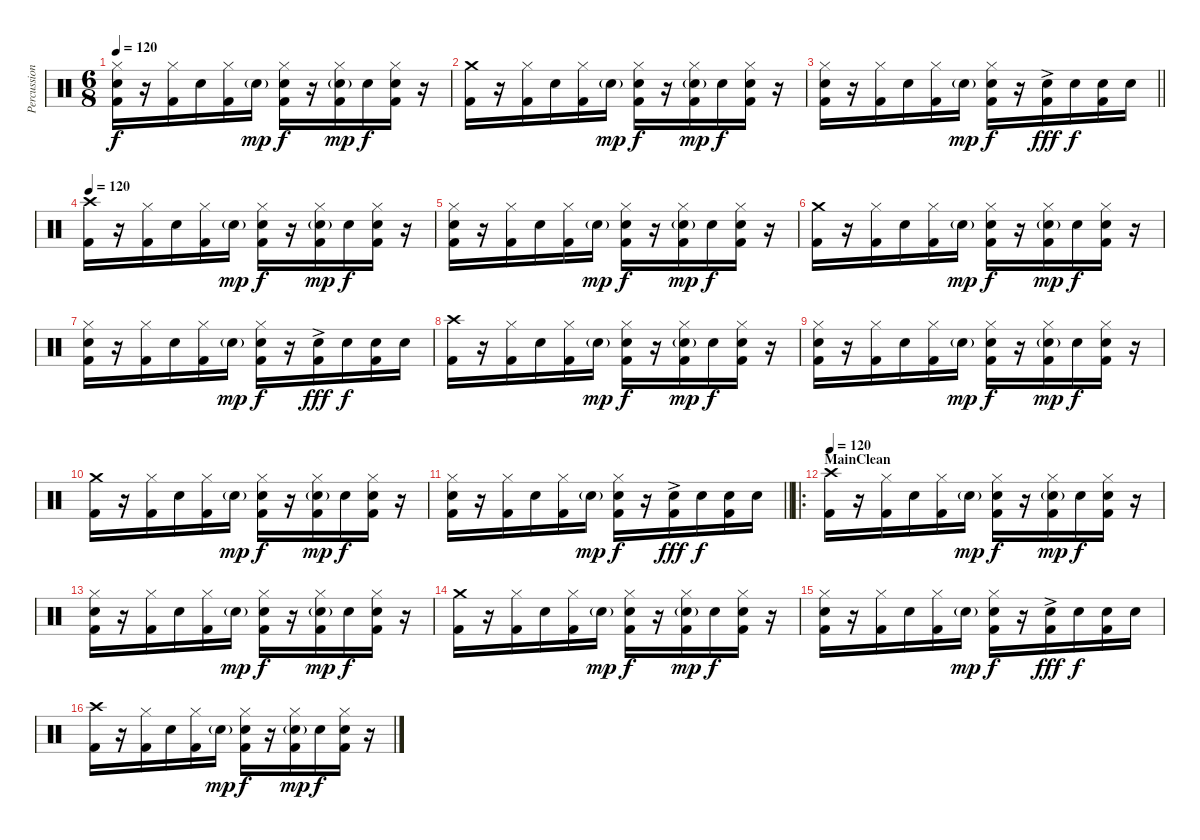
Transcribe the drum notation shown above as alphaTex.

\track ("Percussion" "Percussion") {instrument percussion}
\staff {score}
\articulation defaults
\ts (6 8)
\tempo 120
\clef neutral
\ks c
("Hi-Hat (closed)" "Snare (hit) 2" "Kick (hit) 2").16{dy f} r.16 ("Hi-Hat (closed)" "Kick (hit) 2").16 "Snare (hit) 2".16 ("Hi-Hat (closed)" "Kick (hit) 2").16 "Snare (hit) 2"{g}.16{dy mp} ("Hi-Hat (closed)" "Snare (hit) 2" "Kick (hit) 2").16{dy f} r.16 ("Hi-Hat (closed)" "Snare (hit) 2"{g} "Kick (hit) 2").16{dy mp} "Snare (hit) 2".16{dy f} ("Hi-Hat (closed)" "Snare (hit) 2" "Kick (hit) 2").16 r.16 |
("Crash medium (hit)" "Kick (hit) 2").16 r.16 ("Hi-Hat (closed)" "Kick (hit) 2").16 "Snare (hit) 2".16 ("Hi-Hat (closed)" "Kick (hit) 2").16 "Snare (hit) 2"{g}.16{dy mp} ("Hi-Hat (closed)" "Snare (hit) 2" "Kick (hit) 2").16{dy f} r.16 ("Hi-Hat (closed)" "Snare (hit) 2"{g} "Kick (hit) 2").16{dy mp} "Snare (hit) 2".16{dy f} ("Hi-Hat (closed)" "Snare (hit) 2" "Kick (hit) 2").16 r.16 |
\barLineRight lightlight
("Hi-Hat (closed)" "Snare (hit) 2" "Kick (hit) 2").16 r.16 ("Hi-Hat (closed)" "Kick (hit) 2").16 "Snare (hit) 2".16 ("Hi-Hat (closed)" "Kick (hit) 2").16 "Snare (hit) 2"{g}.16{dy mp} ("Hi-Hat (closed)" "Snare (hit) 2" "Kick (hit) 2").16{dy f} r.16 ("Snare (hit) 2"{ac} "Kick (hit) 2").16{dy fff} "Snare (hit) 2".16{dy f} ("Snare (hit) 2" "Kick (hit) 2").16 "Snare (hit) 2".16 |
\tempo 120
("Crash high (hit)" "Kick (hit) 2").16 r.16 ("Hi-Hat (closed)" "Kick (hit) 2").16 "Snare (hit) 2".16 ("Hi-Hat (closed)" "Kick (hit) 2").16 "Snare (hit) 2"{g}.16{dy mp} ("Hi-Hat (closed)" "Snare (hit) 2" "Kick (hit) 2").16{dy f} r.16 ("Hi-Hat (closed)" "Snare (hit) 2"{g} "Kick (hit) 2").16{dy mp} "Snare (hit) 2".16{dy f} ("Hi-Hat (closed)" "Snare (hit) 2" "Kick (hit) 2").16 r.16 |
("Hi-Hat (closed)" "Snare (hit) 2" "Kick (hit) 2").16 r.16 ("Hi-Hat (closed)" "Kick (hit) 2").16 "Snare (hit) 2".16 ("Hi-Hat (closed)" "Kick (hit) 2").16 "Snare (hit) 2"{g}.16{dy mp} ("Hi-Hat (closed)" "Snare (hit) 2" "Kick (hit) 2").16{dy f} r.16 ("Hi-Hat (closed)" "Snare (hit) 2"{g} "Kick (hit) 2").16{dy mp} "Snare (hit) 2".16{dy f} ("Hi-Hat (closed)" "Snare (hit) 2" "Kick (hit) 2").16 r.16 |
("Crash medium (hit)" "Kick (hit) 2").16 r.16 ("Hi-Hat (closed)" "Kick (hit) 2").16 "Snare (hit) 2".16 ("Hi-Hat (closed)" "Kick (hit) 2").16 "Snare (hit) 2"{g}.16{dy mp} ("Hi-Hat (closed)" "Snare (hit) 2" "Kick (hit) 2").16{dy f} r.16 ("Hi-Hat (closed)" "Snare (hit) 2"{g} "Kick (hit) 2").16{dy mp} "Snare (hit) 2".16{dy f} ("Hi-Hat (closed)" "Snare (hit) 2" "Kick (hit) 2").16 r.16 |
("Hi-Hat (closed)" "Snare (hit) 2" "Kick (hit) 2").16 r.16 ("Hi-Hat (closed)" "Kick (hit) 2").16 "Snare (hit) 2".16 ("Hi-Hat (closed)" "Kick (hit) 2").16 "Snare (hit) 2"{g}.16{dy mp} ("Hi-Hat (closed)" "Snare (hit) 2" "Kick (hit) 2").16{dy f} r.16 ("Snare (hit) 2"{ac} "Kick (hit) 2").16{dy fff} "Snare (hit) 2".16{dy f} ("Snare (hit) 2" "Kick (hit) 2").16 "Snare (hit) 2".16 |
("Crash high (hit)" "Kick (hit) 2").16 r.16 ("Hi-Hat (closed)" "Kick (hit) 2").16 "Snare (hit) 2".16 ("Hi-Hat (closed)" "Kick (hit) 2").16 "Snare (hit) 2"{g}.16{dy mp} ("Hi-Hat (closed)" "Snare (hit) 2" "Kick (hit) 2").16{dy f} r.16 ("Hi-Hat (closed)" "Snare (hit) 2"{g} "Kick (hit) 2").16{dy mp} "Snare (hit) 2".16{dy f} ("Hi-Hat (closed)" "Snare (hit) 2" "Kick (hit) 2").16 r.16 |
("Hi-Hat (closed)" "Snare (hit) 2" "Kick (hit) 2").16 r.16 ("Hi-Hat (closed)" "Kick (hit) 2").16 "Snare (hit) 2".16 ("Hi-Hat (closed)" "Kick (hit) 2").16 "Snare (hit) 2"{g}.16{dy mp} ("Hi-Hat (closed)" "Snare (hit) 2" "Kick (hit) 2").16{dy f} r.16 ("Hi-Hat (closed)" "Snare (hit) 2"{g} "Kick (hit) 2").16{dy mp} "Snare (hit) 2".16{dy f} ("Hi-Hat (closed)" "Snare (hit) 2" "Kick (hit) 2").16 r.16 |
("Crash medium (hit)" "Kick (hit) 2").16 r.16 ("Hi-Hat (closed)" "Kick (hit) 2").16 "Snare (hit) 2".16 ("Hi-Hat (closed)" "Kick (hit) 2").16 "Snare (hit) 2"{g}.16{dy mp} ("Hi-Hat (closed)" "Snare (hit) 2" "Kick (hit) 2").16{dy f} r.16 ("Hi-Hat (closed)" "Snare (hit) 2"{g} "Kick (hit) 2").16{dy mp} "Snare (hit) 2".16{dy f} ("Hi-Hat (closed)" "Snare (hit) 2" "Kick (hit) 2").16 r.16 |
\barLineRight lightlight
("Hi-Hat (closed)" "Snare (hit) 2" "Kick (hit) 2").16 r.16 ("Hi-Hat (closed)" "Kick (hit) 2").16 "Snare (hit) 2".16 ("Hi-Hat (closed)" "Kick (hit) 2").16 "Snare (hit) 2"{g}.16{dy mp} ("Hi-Hat (closed)" "Snare (hit) 2" "Kick (hit) 2").16{dy f} r.16 ("Snare (hit) 2"{ac} "Kick (hit) 2").16{dy fff} "Snare (hit) 2".16{dy f} ("Snare (hit) 2" "Kick (hit) 2").16 "Snare (hit) 2".16 |
\ro
\section ("" "MainClean")
\tempo 120
("Crash high (hit)" "Kick (hit) 2").16 r.16 ("Hi-Hat (closed)" "Kick (hit) 2").16 "Snare (hit) 2".16 ("Hi-Hat (closed)" "Kick (hit) 2").16 "Snare (hit) 2"{g}.16{dy mp} ("Hi-Hat (closed)" "Snare (hit) 2" "Kick (hit) 2").16{dy f} r.16 ("Hi-Hat (closed)" "Snare (hit) 2"{g} "Kick (hit) 2").16{dy mp} "Snare (hit) 2".16{dy f} ("Hi-Hat (closed)" "Snare (hit) 2" "Kick (hit) 2").16 r.16 |
("Hi-Hat (closed)" "Snare (hit) 2" "Kick (hit) 2").16 r.16 ("Hi-Hat (closed)" "Kick (hit) 2").16 "Snare (hit) 2".16 ("Hi-Hat (closed)" "Kick (hit) 2").16 "Snare (hit) 2"{g}.16{dy mp} ("Hi-Hat (closed)" "Snare (hit) 2" "Kick (hit) 2").16{dy f} r.16 ("Hi-Hat (closed)" "Snare (hit) 2"{g} "Kick (hit) 2").16{dy mp} "Snare (hit) 2".16{dy f} ("Hi-Hat (closed)" "Snare (hit) 2" "Kick (hit) 2").16 r.16 |
("Crash medium (hit)" "Kick (hit) 2").16 r.16 ("Hi-Hat (closed)" "Kick (hit) 2").16 "Snare (hit) 2".16 ("Hi-Hat (closed)" "Kick (hit) 2").16 "Snare (hit) 2"{g}.16{dy mp} ("Hi-Hat (closed)" "Snare (hit) 2" "Kick (hit) 2").16{dy f} r.16 ("Hi-Hat (closed)" "Snare (hit) 2"{g} "Kick (hit) 2").16{dy mp} "Snare (hit) 2".16{dy f} ("Hi-Hat (closed)" "Snare (hit) 2" "Kick (hit) 2").16 r.16 |
("Hi-Hat (closed)" "Snare (hit) 2" "Kick (hit) 2").16 r.16 ("Hi-Hat (closed)" "Kick (hit) 2").16 "Snare (hit) 2".16 ("Hi-Hat (closed)" "Kick (hit) 2").16 "Snare (hit) 2"{g}.16{dy mp} ("Hi-Hat (closed)" "Snare (hit) 2" "Kick (hit) 2").16{dy f} r.16 ("Snare (hit) 2"{ac} "Kick (hit) 2").16{dy fff} "Snare (hit) 2".16{dy f} ("Snare (hit) 2" "Kick (hit) 2").16 "Snare (hit) 2".16 |
("Crash high (hit)" "Kick (hit) 2").16 r.16 ("Hi-Hat (closed)" "Kick (hit) 2").16 "Snare (hit) 2".16 ("Hi-Hat (closed)" "Kick (hit) 2").16 "Snare (hit) 2"{g}.16{dy mp} ("Hi-Hat (closed)" "Snare (hit) 2" "Kick (hit) 2").16{dy f} r.16 ("Hi-Hat (closed)" "Snare (hit) 2"{g} "Kick (hit) 2").16{dy mp} "Snare (hit) 2".16{dy f} ("Hi-Hat (closed)" "Snare (hit) 2" "Kick (hit) 2").16 r.16
